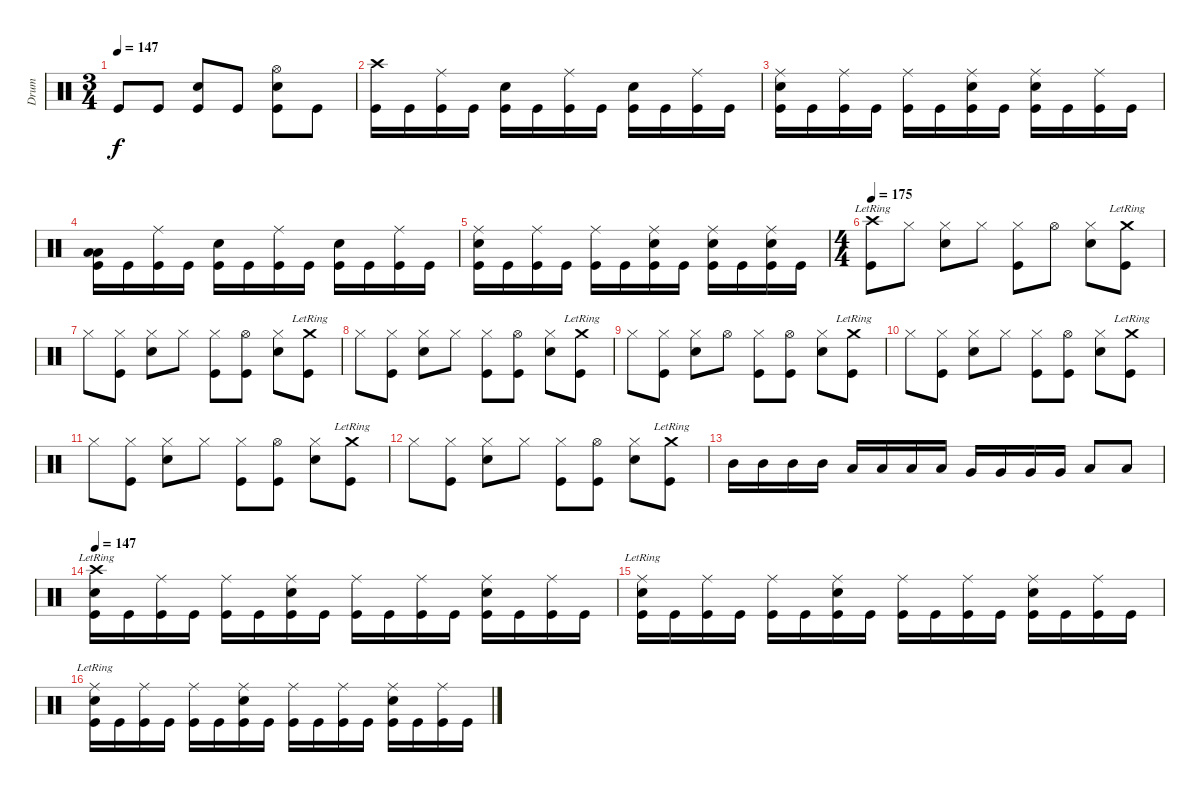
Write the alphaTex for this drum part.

\track ("Drum" "Drum") {instrument percussion}
\staff {score}
\articulation defaults
\ts (3 4)
\tempo 147
\clef neutral
\ks c "Kick (hit)".8{dy f} "Kick (hit)".8
("Snare (hit) 2" "Kick (hit)").8 "Kick (hit)".8 ("Hi-Hat (open)" "Snare (hit) 2" "Kick (hit)").8 "Kick (hit)".8 |
("Crash high (hit)" "Kick (hit)").16 "Kick (hit)".16 ("Ride (middle)" "Kick (hit)").16 "Kick (hit)".16 ("Snare (hit) 2" "Kick (hit)").16 "Kick (hit)".16 ("Ride (middle)" "Kick (hit)").16 "Kick (hit)".16 ("Snare (hit) 2" "Kick (hit)").16 "Kick (hit)".16 ("Ride (middle)" "Kick (hit)").16 "Kick (hit)".16 |
("Ride (middle)" "Snare (hit) 2" "Kick (hit)").16 "Kick (hit)".16 ("Ride (middle)" "Kick (hit)").16 "Kick (hit)".16 ("Ride (middle)" "Kick (hit)").16 "Kick (hit)".16 ("Ride (middle)" "Snare (hit) 2" "Kick (hit)").16 "Kick (hit)".16 ("Ride (middle)" "Snare (hit) 2" "Kick (hit)").16 "Kick (hit)".16 ("Ride (middle)" "Kick (hit)").16 "Kick (hit)".16 |
("Low Floor Tom (hit)" "Low Floor Tom (hit)" "Kick (hit)").16 "Kick (hit)".16 ("Ride (middle)" "Kick (hit)").16 "Kick (hit)".16 ("Snare (hit) 2" "Kick (hit)").16 "Kick (hit)".16 ("Ride (middle)" "Kick (hit)").16 "Kick (hit)".16 ("Snare (hit) 2" "Kick (hit)").16 "Kick (hit)".16 ("Ride (middle)" "Kick (hit)").16 "Kick (hit)".16 |
("Ride (middle)" "Snare (hit) 2" "Kick (hit)").16 "Kick (hit)".16 ("Ride (middle)" "Kick (hit)").16 "Kick (hit)".16 ("Ride (middle)" "Kick (hit)").16 "Kick (hit)".16 ("Ride (middle)" "Snare (hit) 2" "Kick (hit)").16 "Kick (hit)".16 ("Ride (middle)" "Snare (hit) 2" "Kick (hit)").16 "Kick (hit)".16 ("Ride (middle)" "Snare (hit) 2" "Kick (hit)").16 "Kick (hit)".16 |
\ts (4 4)
\tempo 175
("Crash high (hit)"{lr} "Kick (hit)").8 "Hi-Hat (closed)".8 ("Hi-Hat (closed)" "Snare (hit) 2").8 "Hi-Hat (closed)".8 ("Hi-Hat (closed)" "Kick (hit)").8 "Hi-Hat (open)".8 ("Hi-Hat (closed)" "Snare (hit) 2").8 ("Crash medium (hit)"{lr} "Kick (hit)").8 |
"Hi-Hat (closed)".8 ("Hi-Hat (closed)" "Kick (hit)").8 ("Hi-Hat (closed)" "Snare (hit) 2").8 "Hi-Hat (closed)".8 ("Hi-Hat (closed)" "Kick (hit)").8 ("Hi-Hat (open)" "Kick (hit)").8 ("Hi-Hat (closed)" "Snare (hit) 2").8 ("Crash medium (hit)"{lr} "Kick (hit)").8 |
"Hi-Hat (closed)".8 ("Hi-Hat (closed)" "Kick (hit)").8 ("Hi-Hat (closed)" "Snare (hit) 2").8 "Hi-Hat (closed)".8 ("Hi-Hat (closed)" "Kick (hit)").8 ("Hi-Hat (open)" "Kick (hit)").8 ("Hi-Hat (closed)" "Snare (hit) 2").8 ("Crash medium (hit)"{lr} "Kick (hit)").8 |
"Hi-Hat (closed)".8 ("Hi-Hat (closed)" "Kick (hit)").8 ("Hi-Hat (closed)" "Snare (hit) 2").8 "Hi-Hat (open)".8 ("Hi-Hat (closed)" "Kick (hit)").8 ("Hi-Hat (open)" "Kick (hit)").8 ("Hi-Hat (closed)" "Snare (hit) 2").8 ("Crash medium (hit)"{lr} "Kick (hit)").8 |
"Hi-Hat (closed)".8 ("Hi-Hat (closed)" "Kick (hit)").8 ("Hi-Hat (closed)" "Snare (hit) 2").8 "Hi-Hat (closed)".8 ("Hi-Hat (closed)" "Kick (hit)").8 ("Hi-Hat (open)" "Kick (hit)").8 ("Hi-Hat (closed)" "Snare (hit) 2").8 ("Crash medium (hit)"{lr} "Kick (hit)").8 |
"Hi-Hat (closed)".8 ("Hi-Hat (closed)" "Kick (hit)").8 ("Hi-Hat (closed)" "Snare (hit) 2").8 "Hi-Hat (closed)".8 ("Hi-Hat (closed)" "Kick (hit)").8 ("Hi-Hat (open)" "Kick (hit)").8 ("Hi-Hat (closed)" "Snare (hit) 2").8 ("Crash medium (hit)"{lr} "Kick (hit)").8 |
"Hi-Hat (closed)".8 ("Hi-Hat (closed)" "Kick (hit)").8 ("Hi-Hat (closed)" "Snare (hit) 2").8 "Hi-Hat (closed)".8 ("Hi-Hat (closed)" "Kick (hit)").8 ("Hi-Hat (open)" "Kick (hit)").8 ("Hi-Hat (closed)" "Snare (hit) 2").8 ("Crash medium (hit)"{lr} "Kick (hit)").8 |
"Mid Tom (hit)".16 "Mid Tom (hit)".16 "Mid Tom (hit)".16 "Mid Tom (hit)".16 "Low Tom (hit)".16 "Low Tom (hit)".16 "Low Tom (hit)".16 "Low Tom (hit)".16 "Very Low Tom (hit)".16 "Very Low Tom (hit)".16 "Very Low Tom (hit)".16 "Very Low Tom (hit)".16 "Low Floor Tom (hit)".8 "Low Floor Tom (hit)".8 |
\tempo 147
("Crash high (hit)"{lr} "Snare (hit) 2" "Kick (hit)").16 "Kick (hit)".16 ("Ride (middle)" "Kick (hit)").16 "Kick (hit)".16 ("Ride (middle)" "Kick (hit)").16 "Kick (hit)".16 ("Ride (middle)" "Snare (hit) 2" "Kick (hit)").16 "Kick (hit)".16 ("Ride (middle)" "Kick (hit)").16 "Kick (hit)".16 ("Ride (middle)" "Kick (hit)").16 "Kick (hit)".16 ("Ride (middle)" "Snare (hit) 2" "Kick (hit)").16 "Kick (hit)".16 ("Ride (middle)" "Kick (hit)").16 "Kick (hit)".16 |
("Ride (middle)"{lr} "Snare (hit) 2" "Kick (hit)").16 "Kick (hit)".16 ("Ride (middle)" "Kick (hit)").16 "Kick (hit)".16 ("Ride (middle)" "Kick (hit)").16 "Kick (hit)".16 ("Ride (middle)" "Snare (hit) 2" "Kick (hit)").16 "Kick (hit)".16 ("Ride (middle)" "Kick (hit)").16 "Kick (hit)".16 ("Ride (middle)" "Kick (hit)").16 "Kick (hit)".16 ("Ride (middle)" "Snare (hit) 2" "Kick (hit)").16 "Kick (hit)".16 ("Ride (middle)" "Kick (hit)").16 "Kick (hit)".16 |
("Ride (middle)"{lr} "Snare (hit) 2" "Kick (hit)").16 "Kick (hit)".16 ("Ride (middle)" "Kick (hit)").16 "Kick (hit)".16 ("Ride (middle)" "Kick (hit)").16 "Kick (hit)".16 ("Ride (middle)" "Snare (hit) 2" "Kick (hit)").16 "Kick (hit)".16 ("Ride (middle)" "Kick (hit)").16 "Kick (hit)".16 ("Ride (middle)" "Kick (hit)").16 "Kick (hit)".16 ("Ride (middle)" "Snare (hit) 2" "Kick (hit)").16 "Kick (hit)".16 ("Ride (middle)" "Kick (hit)").16 "Kick (hit)".16
